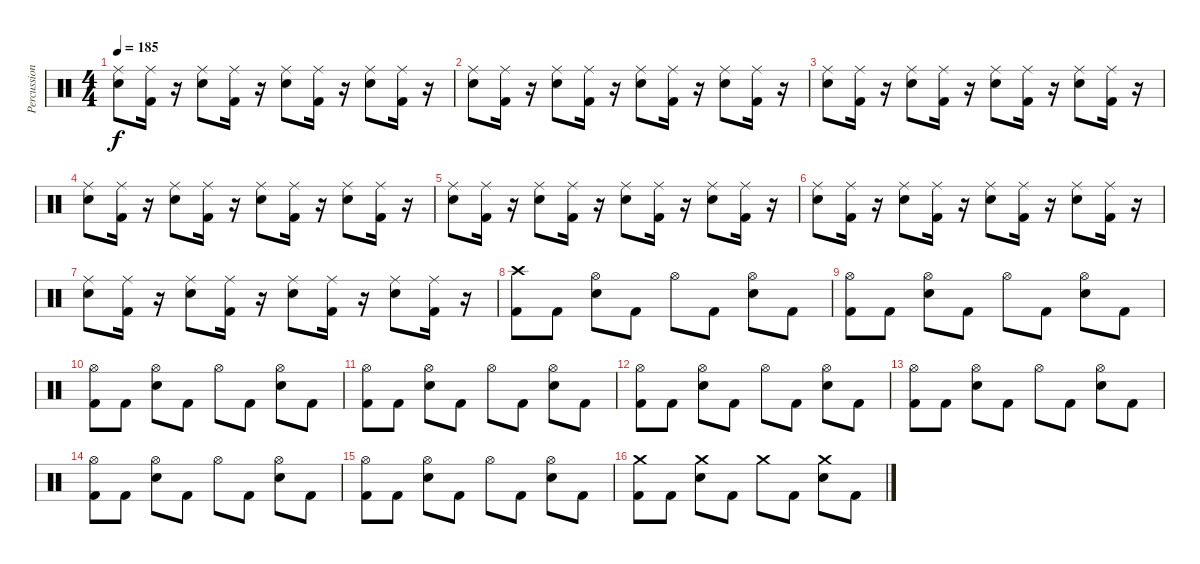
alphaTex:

\track ("Percussion" "Percussion") {instrument percussion}
\staff {score}
\articulation defaults
\ts (4 4)
\tempo 185
\clef neutral
\ks c
("Ride (middle)" "Electric Snare (hit)").8{dy f} ("Ride (middle)" "Kick (hit) 2").16 r.16 ("Ride (middle)" "Electric Snare (hit)").8 ("Ride (middle)" "Kick (hit) 2").16 r.16 ("Ride (middle)" "Electric Snare (hit)").8 ("Ride (middle)" "Kick (hit) 2").16 r.16 ("Ride (middle)" "Electric Snare (hit)").8 ("Ride (middle)" "Kick (hit) 2").16 r.16 |
("Ride (middle)" "Electric Snare (hit)").8 ("Ride (middle)" "Kick (hit) 2").16 r.16 ("Ride (middle)" "Electric Snare (hit)").8 ("Ride (middle)" "Kick (hit) 2").16 r.16 ("Ride (middle)" "Electric Snare (hit)").8 ("Ride (middle)" "Kick (hit) 2").16 r.16 ("Ride (middle)" "Electric Snare (hit)").8 ("Ride (middle)" "Kick (hit) 2").16 r.16 |
("Ride (middle)" "Electric Snare (hit)").8 ("Ride (middle)" "Kick (hit) 2").16 r.16 ("Ride (middle)" "Electric Snare (hit)").8 ("Ride (middle)" "Kick (hit) 2").16 r.16 ("Ride (middle)" "Electric Snare (hit)").8 ("Ride (middle)" "Kick (hit) 2").16 r.16 ("Ride (middle)" "Electric Snare (hit)").8 ("Ride (middle)" "Kick (hit) 2").16 r.16 |
("Ride (middle)" "Electric Snare (hit)").8 ("Ride (middle)" "Kick (hit) 2").16 r.16 ("Ride (middle)" "Electric Snare (hit)").8 ("Ride (middle)" "Kick (hit) 2").16 r.16 ("Ride (middle)" "Electric Snare (hit)").8 ("Ride (middle)" "Kick (hit) 2").16 r.16 ("Ride (middle)" "Electric Snare (hit)").8 ("Ride (middle)" "Kick (hit) 2").16 r.16 |
("Ride (middle)" "Electric Snare (hit)").8 ("Ride (middle)" "Kick (hit) 2").16 r.16 ("Ride (middle)" "Electric Snare (hit)").8 ("Ride (middle)" "Kick (hit) 2").16 r.16 ("Ride (middle)" "Electric Snare (hit)").8 ("Ride (middle)" "Kick (hit) 2").16 r.16 ("Ride (middle)" "Electric Snare (hit)").8 ("Ride (middle)" "Kick (hit) 2").16 r.16 |
("Ride (middle)" "Electric Snare (hit)").8 ("Ride (middle)" "Kick (hit) 2").16 r.16 ("Ride (middle)" "Electric Snare (hit)").8 ("Ride (middle)" "Kick (hit) 2").16 r.16 ("Ride (middle)" "Electric Snare (hit)").8 ("Ride (middle)" "Kick (hit) 2").16 r.16 ("Ride (middle)" "Electric Snare (hit)").8 ("Ride (middle)" "Kick (hit) 2").16 r.16 |
("Ride (middle)" "Electric Snare (hit)").8 ("Ride (middle)" "Kick (hit) 2").16 r.16 ("Ride (middle)" "Electric Snare (hit)").8 ("Ride (middle)" "Kick (hit) 2").16 r.16 ("Ride (middle)" "Electric Snare (hit)").8 ("Ride (middle)" "Kick (hit) 2").16 r.16 ("Ride (middle)" "Electric Snare (hit)").8 ("Ride (middle)" "Kick (hit) 2").16 r.16 |
("Crash high (hit)" "Kick (hit) 2").8 "Kick (hit) 2".8 ("Hi-Hat (open)" "Electric Snare (hit)").8 "Kick (hit) 2".8 "Hi-Hat (open)".8 "Kick (hit) 2".8 ("Hi-Hat (open)" "Electric Snare (hit)").8 "Kick (hit) 2".8 |
("Hi-Hat (open)" "Kick (hit) 2").8 "Kick (hit) 2".8 ("Hi-Hat (open)" "Electric Snare (hit)").8 "Kick (hit) 2".8 "Hi-Hat (open)".8 "Kick (hit) 2".8 ("Hi-Hat (open)" "Electric Snare (hit)").8 "Kick (hit) 2".8 |
("Hi-Hat (open)" "Kick (hit) 2").8 "Kick (hit) 2".8 ("Hi-Hat (open)" "Electric Snare (hit)").8 "Kick (hit) 2".8 "Hi-Hat (open)".8 "Kick (hit) 2".8 ("Hi-Hat (open)" "Electric Snare (hit)").8 "Kick (hit) 2".8 |
("Hi-Hat (open)" "Kick (hit) 2").8 "Kick (hit) 2".8 ("Hi-Hat (open)" "Electric Snare (hit)").8 "Kick (hit) 2".8 "Hi-Hat (open)".8 "Kick (hit) 2".8 ("Hi-Hat (open)" "Electric Snare (hit)").8 "Kick (hit) 2".8 |
("Hi-Hat (open)" "Kick (hit) 2").8 "Kick (hit) 2".8 ("Hi-Hat (open)" "Electric Snare (hit)").8 "Kick (hit) 2".8 "Hi-Hat (open)".8 "Kick (hit) 2".8 ("Hi-Hat (open)" "Electric Snare (hit)").8 "Kick (hit) 2".8 |
("Hi-Hat (open)" "Kick (hit) 2").8 "Kick (hit) 2".8 ("Hi-Hat (open)" "Electric Snare (hit)").8 "Kick (hit) 2".8 "Hi-Hat (open)".8 "Kick (hit) 2".8 ("Hi-Hat (open)" "Electric Snare (hit)").8 "Kick (hit) 2".8 |
("Hi-Hat (open)" "Kick (hit) 2").8 "Kick (hit) 2".8 ("Hi-Hat (open)" "Electric Snare (hit)").8 "Kick (hit) 2".8 "Hi-Hat (open)".8 "Kick (hit) 2".8 ("Hi-Hat (open)" "Electric Snare (hit)").8 "Kick (hit) 2".8 |
("Hi-Hat (open)" "Kick (hit) 2").8 "Kick (hit) 2".8 ("Hi-Hat (open)" "Electric Snare (hit)").8 "Kick (hit) 2".8 "Hi-Hat (open)".8 "Kick (hit) 2".8 ("Hi-Hat (open)" "Electric Snare (hit)").8 "Kick (hit) 2".8 |
("Crash medium (hit)" "Kick (hit) 2").8 "Kick (hit) 2".8 ("Crash medium (hit)" "Electric Snare (hit)").8 "Kick (hit) 2".8 "Crash medium (hit)".8 "Kick (hit) 2".8 ("Crash medium (hit)" "Electric Snare (hit)").8 "Kick (hit) 2".8
